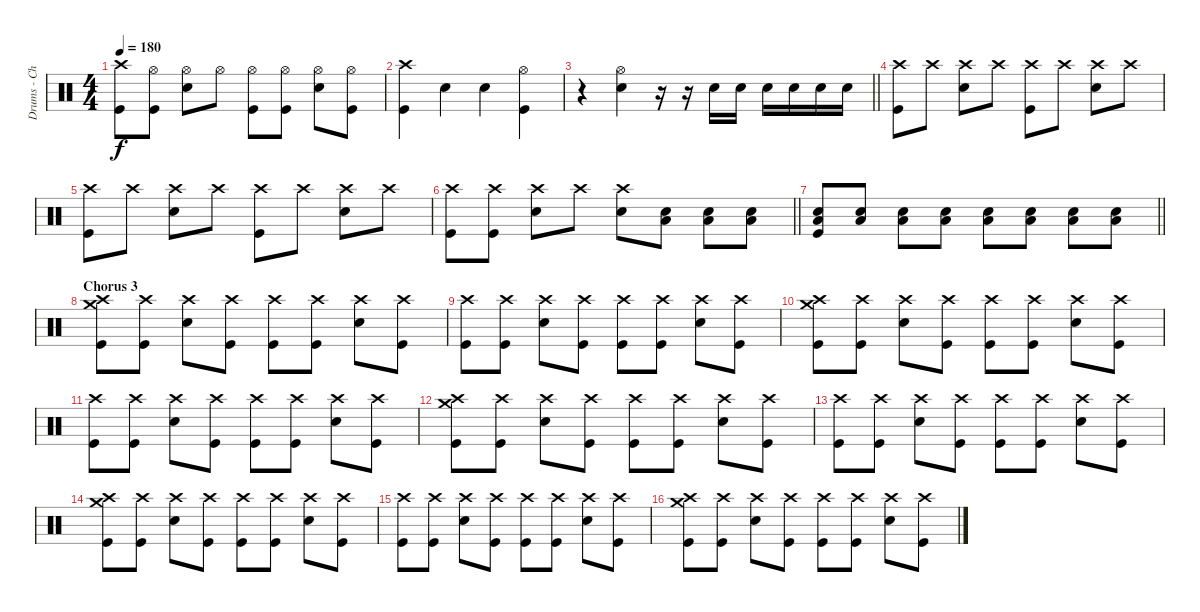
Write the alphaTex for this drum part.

\track ("Drums - Chris Dangerous" "Drums - Ch") {instrument percussion}
\staff {score}
\articulation defaults
\ts (4 4)
\tempo 180
\clef neutral
\ks c
("Crash high (hit)" "Kick (hit)").8{dy f} ("Hi-Hat (open)" "Kick (hit)").8 ("Hi-Hat (open)" "Snare (hit) 2").8 "Hi-Hat (open)".8 ("Hi-Hat (open)" "Kick (hit)").8 ("Hi-Hat (open)" "Kick (hit)").8 ("Hi-Hat (open)" "Snare (hit) 2").8 ("Hi-Hat (open)" "Kick (hit)").8 |
("Crash high (hit)" "Kick (hit)").4 "Snare (hit) 2".4 "Snare (hit) 2".4 ("Hi-Hat (open)" "Kick (hit)").4 |
\barLineRight lightlight
r.4 ("Hi-Hat (open)" "Snare (hit) 2").4 r.16 r.16 "Snare (hit) 2".16 "Snare (hit) 2".16 "Snare (hit) 2".16 "Snare (hit) 2".16 "Snare (hit) 2".16 "Snare (hit) 2".16 |
\section ("" "")
("Crash high (hit)" "Kick (hit)").8 "Crash high (hit)".8 ("Crash high (hit)" "Snare (hit) 2").8 "Crash high (hit)".8 ("Crash high (hit)" "Kick (hit)").8 "Crash high (hit)".8 ("Crash high (hit)" "Snare (hit) 2").8 "Crash high (hit)".8 |
("Crash high (hit)" "Kick (hit)").8 "Crash high (hit)".8 ("Crash high (hit)" "Snare (hit) 2").8 "Crash high (hit)".8 ("Crash high (hit)" "Kick (hit)").8 "Crash high (hit)".8 ("Crash high (hit)" "Snare (hit) 2").8 "Crash high (hit)".8 |
\barLineRight lightlight
("Crash high (hit)" "Kick (hit)").8 ("Crash high (hit)" "Kick (hit)").8 ("Crash high (hit)" "Snare (hit) 2").8 "Crash high (hit)".8 ("Crash high (hit)" "Snare (hit) 2").8 ("Low Floor Tom (hit)" "Snare (hit) 2").8 ("Low Floor Tom (hit)" "Snare (hit) 2").8 ("Low Floor Tom (hit)" "Snare (hit) 2").8 |
\barLineRight lightlight
("Low Floor Tom (hit)" "Snare (hit) 2" "Kick (hit)").8 ("Low Floor Tom (hit)" "Snare (hit) 2").8 ("Low Floor Tom (hit)" "Snare (hit) 2").8 ("Low Floor Tom (hit)" "Snare (hit) 2").8 ("Low Floor Tom (hit)" "Snare (hit) 2").8 ("Low Floor Tom (hit)" "Snare (hit) 2").8 ("Low Floor Tom (hit)" "Snare (hit) 2").8 ("Low Floor Tom (hit)" "Snare (hit) 2").8 |
\section ("" "Chorus 3")
("Crash high (hit)" "Kick (hit)" "Crash medium (hit)").8 ("Crash high (hit)" "Kick (hit)").8 ("Crash high (hit)" "Snare (hit) 2").8 ("Crash high (hit)" "Kick (hit)").8 ("Crash high (hit)" "Kick (hit)").8 ("Crash high (hit)" "Kick (hit)").8 ("Crash high (hit)" "Snare (hit) 2").8 ("Crash high (hit)" "Kick (hit)").8 |
("Crash high (hit)" "Kick (hit)").8 ("Crash high (hit)" "Kick (hit)").8 ("Crash high (hit)" "Snare (hit) 2").8 ("Crash high (hit)" "Kick (hit)").8 ("Crash high (hit)" "Kick (hit)").8 ("Crash high (hit)" "Kick (hit)").8 ("Crash high (hit)" "Snare (hit) 2").8 ("Crash high (hit)" "Kick (hit)").8 |
("Crash high (hit)" "Kick (hit)" "Crash medium (hit)").8 ("Crash high (hit)" "Kick (hit)").8 ("Crash high (hit)" "Snare (hit) 2").8 ("Crash high (hit)" "Kick (hit)").8 ("Crash high (hit)" "Kick (hit)").8 ("Crash high (hit)" "Kick (hit)").8 ("Crash high (hit)" "Snare (hit) 2").8 ("Crash high (hit)" "Kick (hit)").8 |
("Crash high (hit)" "Kick (hit)").8 ("Crash high (hit)" "Kick (hit)").8 ("Crash high (hit)" "Snare (hit) 2").8 ("Crash high (hit)" "Kick (hit)").8 ("Crash high (hit)" "Kick (hit)").8 ("Crash high (hit)" "Kick (hit)").8 ("Crash high (hit)" "Snare (hit) 2").8 ("Crash high (hit)" "Kick (hit)").8 |
("Crash high (hit)" "Kick (hit)" "Crash medium (hit)").8 ("Crash high (hit)" "Kick (hit)").8 ("Crash high (hit)" "Snare (hit) 2").8 ("Crash high (hit)" "Kick (hit)").8 ("Crash high (hit)" "Kick (hit)").8 ("Crash high (hit)" "Kick (hit)").8 ("Crash high (hit)" "Snare (hit) 2").8 ("Crash high (hit)" "Kick (hit)").8 |
("Crash high (hit)" "Kick (hit)").8 ("Crash high (hit)" "Kick (hit)").8 ("Crash high (hit)" "Snare (hit) 2").8 ("Crash high (hit)" "Kick (hit)").8 ("Crash high (hit)" "Kick (hit)").8 ("Crash high (hit)" "Kick (hit)").8 ("Crash high (hit)" "Snare (hit) 2").8 ("Crash high (hit)" "Kick (hit)").8 |
("Crash high (hit)" "Kick (hit)" "Crash medium (hit)").8 ("Crash high (hit)" "Kick (hit)").8 ("Crash high (hit)" "Snare (hit) 2").8 ("Crash high (hit)" "Kick (hit)").8 ("Crash high (hit)" "Kick (hit)").8 ("Crash high (hit)" "Kick (hit)").8 ("Crash high (hit)" "Snare (hit) 2").8 ("Crash high (hit)" "Kick (hit)").8 |
("Crash high (hit)" "Kick (hit)").8 ("Crash high (hit)" "Kick (hit)").8 ("Crash high (hit)" "Snare (hit) 2").8 ("Crash high (hit)" "Kick (hit)").8 ("Crash high (hit)" "Kick (hit)").8 ("Crash high (hit)" "Kick (hit)").8 ("Crash high (hit)" "Snare (hit) 2").8 ("Crash high (hit)" "Kick (hit)").8 |
("Crash high (hit)" "Kick (hit)" "Crash medium (hit)").8 ("Crash high (hit)" "Kick (hit)").8 ("Crash high (hit)" "Snare (hit) 2").8 ("Crash high (hit)" "Kick (hit)").8 ("Crash high (hit)" "Kick (hit)").8 ("Crash high (hit)" "Kick (hit)").8 ("Crash high (hit)" "Snare (hit) 2").8 ("Crash high (hit)" "Kick (hit)").8
